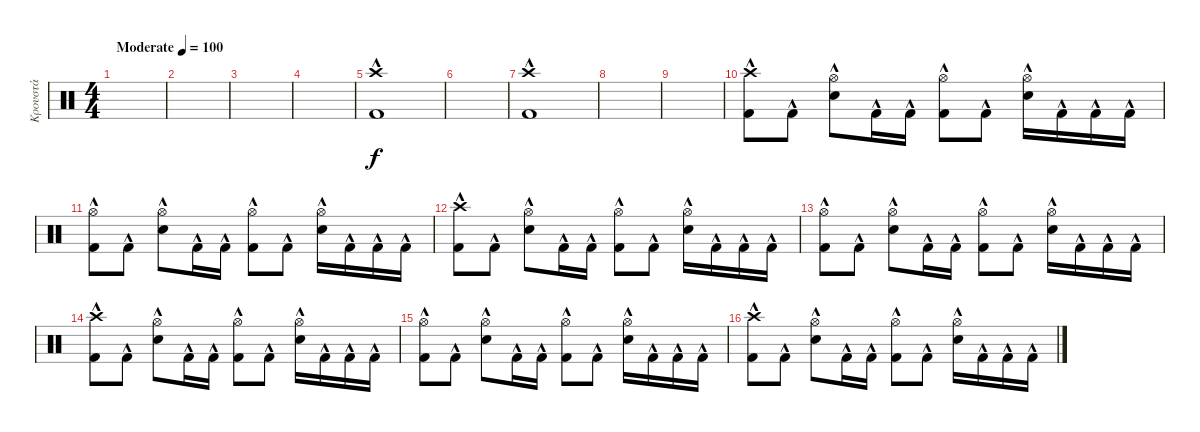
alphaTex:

\track ("Κρουστά" "Κρουστά") {instrument percussion}
\staff {score}
\articulation defaults
\ts (4 4)
\tempo (100 "Moderate")
\clef neutral
\ks c
|
|
|
|
("Kick (hit) 2"{hac} "Crash high (hit)").1 |
|
("Kick (hit) 2"{hac} "Crash high (hit)").1 |
|
|
("Kick (hit) 2"{hac} "Crash high (hit)").8 "Kick (hit) 2"{hac}.8 ("Electric Snare (hit)"{hac} "Hi-Hat (open)").8 "Kick (hit) 2"{hac}.16 "Kick (hit) 2"{hac}.16 ("Kick (hit) 2"{hac} "Hi-Hat (open)").8 "Kick (hit) 2"{hac}.8 ("Electric Snare (hit)"{hac} "Hi-Hat (open)").16 "Kick (hit) 2"{hac}.16 "Kick (hit) 2"{hac}.16 "Kick (hit) 2"{hac}.16 |
("Kick (hit) 2"{hac} "Hi-Hat (open)").8 "Kick (hit) 2"{hac}.8 ("Electric Snare (hit)"{hac} "Hi-Hat (open)").8 "Kick (hit) 2"{hac}.16 "Kick (hit) 2"{hac}.16 ("Kick (hit) 2"{hac} "Hi-Hat (open)").8 "Kick (hit) 2"{hac}.8 ("Electric Snare (hit)"{hac} "Hi-Hat (open)").16 "Kick (hit) 2"{hac}.16 "Kick (hit) 2"{hac}.16 "Kick (hit) 2"{hac}.16 |
("Kick (hit) 2"{hac} "Crash high (hit)").8 "Kick (hit) 2"{hac}.8 ("Electric Snare (hit)"{hac} "Hi-Hat (open)").8 "Kick (hit) 2"{hac}.16 "Kick (hit) 2"{hac}.16 ("Kick (hit) 2"{hac} "Hi-Hat (open)").8 "Kick (hit) 2"{hac}.8 ("Electric Snare (hit)"{hac} "Hi-Hat (open)").16 "Kick (hit) 2"{hac}.16 "Kick (hit) 2"{hac}.16 "Kick (hit) 2"{hac}.16 |
("Kick (hit) 2"{hac} "Hi-Hat (open)").8 "Kick (hit) 2"{hac}.8 ("Electric Snare (hit)"{hac} "Hi-Hat (open)").8 "Kick (hit) 2"{hac}.16 "Kick (hit) 2"{hac}.16 ("Kick (hit) 2"{hac} "Hi-Hat (open)").8 "Kick (hit) 2"{hac}.8 ("Electric Snare (hit)"{hac} "Hi-Hat (open)").16 "Kick (hit) 2"{hac}.16 "Kick (hit) 2"{hac}.16 "Kick (hit) 2"{hac}.16 |
("Kick (hit) 2"{hac} "Crash high (hit)").8 "Kick (hit) 2"{hac}.8 ("Electric Snare (hit)"{hac} "Hi-Hat (open)").8 "Kick (hit) 2"{hac}.16 "Kick (hit) 2"{hac}.16 ("Kick (hit) 2"{hac} "Hi-Hat (open)").8 "Kick (hit) 2"{hac}.8 ("Electric Snare (hit)"{hac} "Hi-Hat (open)").16 "Kick (hit) 2"{hac}.16 "Kick (hit) 2"{hac}.16 "Kick (hit) 2"{hac}.16 |
("Kick (hit) 2"{hac} "Hi-Hat (open)").8 "Kick (hit) 2"{hac}.8 ("Electric Snare (hit)"{hac} "Hi-Hat (open)").8 "Kick (hit) 2"{hac}.16 "Kick (hit) 2"{hac}.16 ("Kick (hit) 2"{hac} "Hi-Hat (open)").8 "Kick (hit) 2"{hac}.8 ("Electric Snare (hit)"{hac} "Hi-Hat (open)").16 "Kick (hit) 2"{hac}.16 "Kick (hit) 2"{hac}.16 "Kick (hit) 2"{hac}.16 |
("Kick (hit) 2"{hac} "Crash high (hit)").8 "Kick (hit) 2"{hac}.8 ("Electric Snare (hit)"{hac} "Hi-Hat (open)").8 "Kick (hit) 2"{hac}.16 "Kick (hit) 2"{hac}.16 ("Kick (hit) 2"{hac} "Hi-Hat (open)").8 "Kick (hit) 2"{hac}.8 ("Electric Snare (hit)"{hac} "Hi-Hat (open)").16 "Kick (hit) 2"{hac}.16 "Kick (hit) 2"{hac}.16 "Kick (hit) 2"{hac}.16
